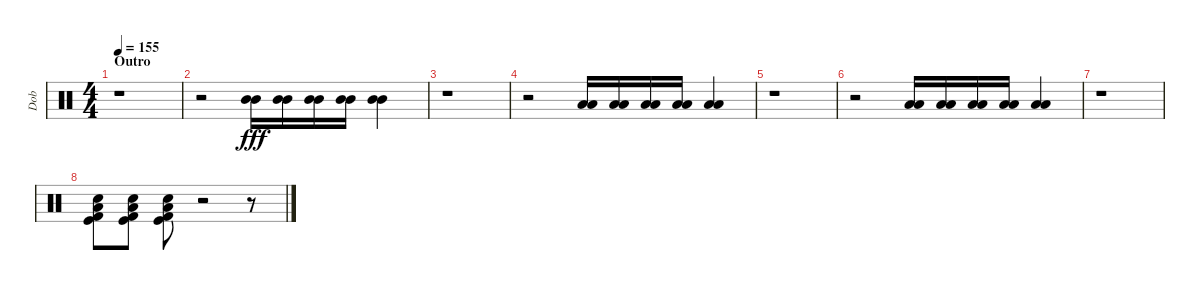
\track ("Dob" "Dob") {instrument percussion}
\staff {score}
\articulation defaults
\ts (4 4)
\section ("" "Outro")
\tempo 155
\clef neutral
\ks c
r.1{dy fff} |
r.2 ("Mid Tom (hit)" "Mid Tom (hit)").16 ("Mid Tom (hit)" "Mid Tom (hit)").16 ("Mid Tom (hit)" "Mid Tom (hit)").16 ("Mid Tom (hit)" "Mid Tom (hit)").16 ("Mid Tom (hit)" "Mid Tom (hit)").4 |
r.1 |
r.2 ("Low Floor Tom (hit)" "Low Floor Tom (hit)").16 ("Low Floor Tom (hit)" "Low Floor Tom (hit)").16 ("Low Floor Tom (hit)" "Low Floor Tom (hit)").16 ("Low Floor Tom (hit)" "Low Floor Tom (hit)").16 ("Low Floor Tom (hit)" "Low Floor Tom (hit)").4 |
r.1 |
r.2 ("Low Tom (hit)" "Low Tom (hit)").16 ("Low Tom (hit)" "Low Tom (hit)").16 ("Low Tom (hit)" "Low Tom (hit)").16 ("Low Tom (hit)" "Low Tom (hit)").16 ("Low Tom (hit)" "Low Tom (hit)").4 |
r.1 |
("Kick (hit)" "Kick (hit) 2" "Low Floor Tom (hit)" "Electric Snare (hit)").8 ("Kick (hit)" "Kick (hit) 2" "Low Floor Tom (hit)" "Electric Snare (hit)").8 ("Kick (hit)" "Kick (hit) 2" "Low Floor Tom (hit)" "Electric Snare (hit)").8 r.2 r.8
